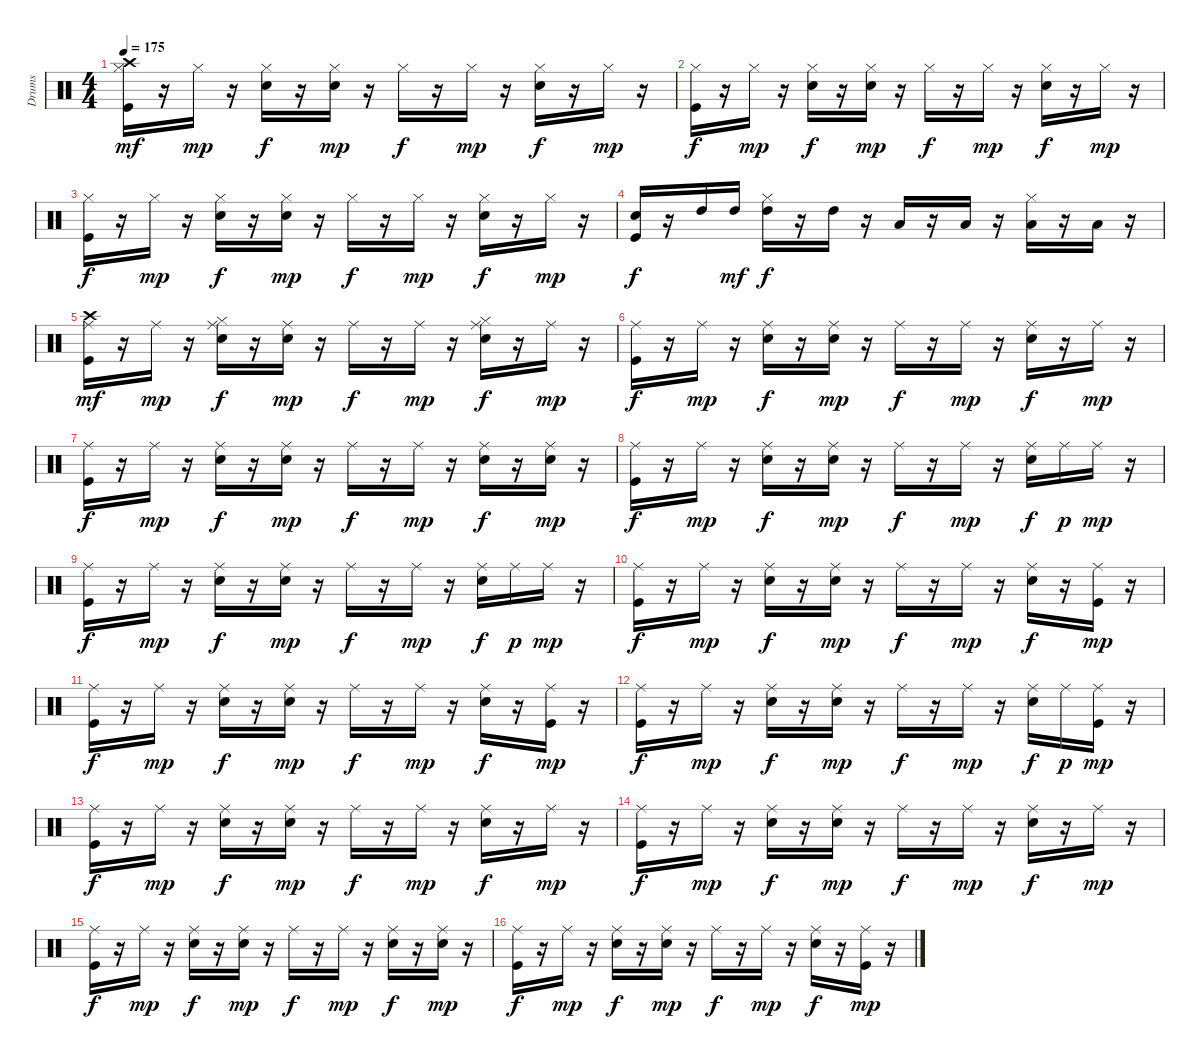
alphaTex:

\track ("Drums" "Drums") {instrument percussion}
\staff {score}
\articulation defaults
\ts (4 4)
\tempo 175
\clef neutral
\ks c
("Kick (hit)" "Hi-Hat (closed)" "Crash high (hit)").16{dy mf} r.16 "Hi-Hat (closed)".16{dy mp} r.16 ("Snare (hit) 2" "Hi-Hat (closed)").16{dy f} r.16 ("Snare (hit) 2" "Hi-Hat (closed)").16{dy mp} r.16 "Hi-Hat (closed)".16{dy f} r.16 "Hi-Hat (closed)".16{dy mp} r.16 ("Snare (hit) 2" "Hi-Hat (closed)").16{dy f} r.16 "Hi-Hat (closed)".16{dy mp} r.16 |
("Kick (hit)" "Hi-Hat (closed)").16{dy f} r.16 "Hi-Hat (closed)".16{dy mp} r.16 ("Snare (hit) 2" "Hi-Hat (closed)").16{dy f} r.16 ("Snare (hit) 2" "Hi-Hat (closed)").16{dy mp} r.16 "Hi-Hat (closed)".16{dy f} r.16 "Hi-Hat (closed)".16{dy mp} r.16 ("Snare (hit) 2" "Hi-Hat (closed)").16{dy f} r.16 "Hi-Hat (closed)".16{dy mp} r.16 |
("Kick (hit)" "Hi-Hat (closed)").16{dy f} r.16 "Hi-Hat (closed)".16{dy mp} r.16 ("Snare (hit) 2" "Hi-Hat (closed)").16{dy f} r.16 ("Snare (hit) 2" "Hi-Hat (closed)").16{dy mp} r.16 "Hi-Hat (closed)".16{dy f} r.16 "Hi-Hat (closed)".16{dy mp} r.16 ("Snare (hit) 2" "Hi-Hat (closed)").16{dy f} r.16 "Hi-Hat (closed)".16{dy mp} r.16 |
("Kick (hit)" "Snare (hit) 2").16{dy f} r.16 "High Tom (hit)".16 "High Tom (hit)".16{dy mf} ("Hi-Hat (closed)" "High Tom (hit)").16{dy f} r.16 "High Tom (hit)".16 r.16 "Low Tom (hit)".16 r.16 "Low Tom (hit)".16 r.16 ("Hi-Hat (closed)" "Low Floor Tom (hit)").16 r.16 "Low Floor Tom (hit)".16 r.16 |
("Kick (hit)" "Ride (middle)" "Crash high (hit)").16{dy mf} r.16 "Ride (middle)".16{dy mp} r.16 ("Snare (hit) 2" "Hi-Hat (closed)" "Ride (middle)").16{dy f} r.16 ("Snare (hit) 2" "Ride (middle)").16{dy mp} r.16 "Ride (middle)".16{dy f} r.16 "Ride (middle)".16{dy mp} r.16 ("Snare (hit) 2" "Hi-Hat (closed)" "Ride (middle)").16{dy f} r.16 "Ride (middle)".16{dy mp} r.16 |
("Kick (hit)" "Ride (middle)").16{dy f} r.16 "Ride (middle)".16{dy mp} r.16 ("Snare (hit) 2" "Ride (middle)").16{dy f} r.16 ("Snare (hit) 2" "Ride (middle)").16{dy mp} r.16 "Ride (middle)".16{dy f} r.16 "Ride (middle)".16{dy mp} r.16 ("Snare (hit) 2" "Ride (middle)").16{dy f} r.16 "Ride (middle)".16{dy mp} r.16 |
("Kick (hit)" "Ride (middle)").16{dy f} r.16 "Ride (middle)".16{dy mp} r.16 ("Snare (hit) 2" "Ride (middle)").16{dy f} r.16 ("Snare (hit) 2" "Ride (middle)").16{dy mp} r.16 "Ride (middle)".16{dy f} r.16 "Ride (middle)".16{dy mp} r.16 ("Snare (hit) 2" "Ride (middle)").16{dy f} r.16 ("Snare (hit) 2" "Ride (middle)").16{dy mp} r.16 |
("Kick (hit)" "Ride (middle)").16{dy f} r.16 "Ride (middle)".16{dy mp} r.16 ("Snare (hit) 2" "Ride (middle)").16{dy f} r.16 ("Snare (hit) 2" "Ride (middle)").16{dy mp} r.16 "Ride (middle)".16{dy f} r.16 "Ride (middle)".16{dy mp} r.16 ("Snare (hit) 2" "Ride (middle)").16{dy f} "Ride (middle)".16{dy p} "Ride (middle)".16{dy mp} r.16 |
("Kick (hit)" "Ride (middle)").16{dy f} r.16 "Ride (middle)".16{dy mp} r.16 ("Snare (hit) 2" "Ride (middle)").16{dy f} r.16 ("Snare (hit) 2" "Ride (middle)").16{dy mp} r.16 "Ride (middle)".16{dy f} r.16 "Ride (middle)".16{dy mp} r.16 ("Snare (hit) 2" "Ride (middle)").16{dy f} "Ride (middle)".16{dy p} "Ride (middle)".16{dy mp} r.16 |
("Kick (hit)" "Ride (middle)").16{dy f} r.16 "Ride (middle)".16{dy mp} r.16 ("Snare (hit) 2" "Ride (middle)").16{dy f} r.16 ("Snare (hit) 2" "Ride (middle)").16{dy mp} r.16 "Ride (middle)".16{dy f} r.16 "Ride (middle)".16{dy mp} r.16 ("Snare (hit) 2" "Ride (middle)").16{dy f} r.16 ("Kick (hit)" "Ride (middle)").16{dy mp} r.16 |
("Kick (hit)" "Ride (middle)").16{dy f} r.16 "Ride (middle)".16{dy mp} r.16 ("Snare (hit) 2" "Ride (middle)").16{dy f} r.16 ("Snare (hit) 2" "Ride (middle)").16{dy mp} r.16 "Ride (middle)".16{dy f} r.16 "Ride (middle)".16{dy mp} r.16 ("Snare (hit) 2" "Ride (middle)").16{dy f} r.16 ("Kick (hit)" "Ride (middle)").16{dy mp} r.16 |
("Kick (hit)" "Ride (middle)").16{dy f} r.16 "Ride (middle)".16{dy mp} r.16 ("Snare (hit) 2" "Ride (middle)").16{dy f} r.16 ("Snare (hit) 2" "Ride (middle)").16{dy mp} r.16 "Ride (middle)".16{dy f} r.16 "Ride (middle)".16{dy mp} r.16 ("Snare (hit) 2" "Ride (middle)").16{dy f} "Ride (middle)".16{dy p} ("Kick (hit)" "Ride (middle)").16{dy mp} r.16 |
("Kick (hit)" "Ride (middle)").16{dy f} r.16 "Ride (middle)".16{dy mp} r.16 ("Snare (hit) 2" "Ride (middle)").16{dy f} r.16 ("Snare (hit) 2" "Ride (middle)").16{dy mp} r.16 "Ride (middle)".16{dy f} r.16 "Ride (middle)".16{dy mp} r.16 ("Snare (hit) 2" "Ride (middle)").16{dy f} r.16 "Ride (middle)".16{dy mp} r.16 |
("Kick (hit)" "Ride (middle)").16{dy f} r.16 "Ride (middle)".16{dy mp} r.16 ("Snare (hit) 2" "Ride (middle)").16{dy f} r.16 ("Snare (hit) 2" "Ride (middle)").16{dy mp} r.16 "Ride (middle)".16{dy f} r.16 "Ride (middle)".16{dy mp} r.16 ("Snare (hit) 2" "Ride (middle)").16{dy f} r.16 "Ride (middle)".16{dy mp} r.16 |
("Kick (hit)" "Ride (middle)").16{dy f} r.16 "Ride (middle)".16{dy mp} r.16 ("Snare (hit) 2" "Ride (middle)").16{dy f} r.16 ("Snare (hit) 2" "Ride (middle)").16{dy mp} r.16 "Ride (middle)".16{dy f} r.16 "Ride (middle)".16{dy mp} r.16 ("Snare (hit) 2" "Ride (middle)").16{dy f} r.16 ("Snare (hit) 2" "Ride (middle)").16{dy mp} r.16 |
("Kick (hit)" "Ride (middle)").16{dy f} r.16 "Ride (middle)".16{dy mp} r.16 ("Snare (hit) 2" "Ride (middle)").16{dy f} r.16 ("Snare (hit) 2" "Ride (middle)").16{dy mp} r.16 "Ride (middle)".16{dy f} r.16 "Ride (middle)".16{dy mp} r.16 ("Snare (hit) 2" "Ride (middle)").16{dy f} r.16 ("Kick (hit)" "Ride (middle)").16{dy mp} r.16
